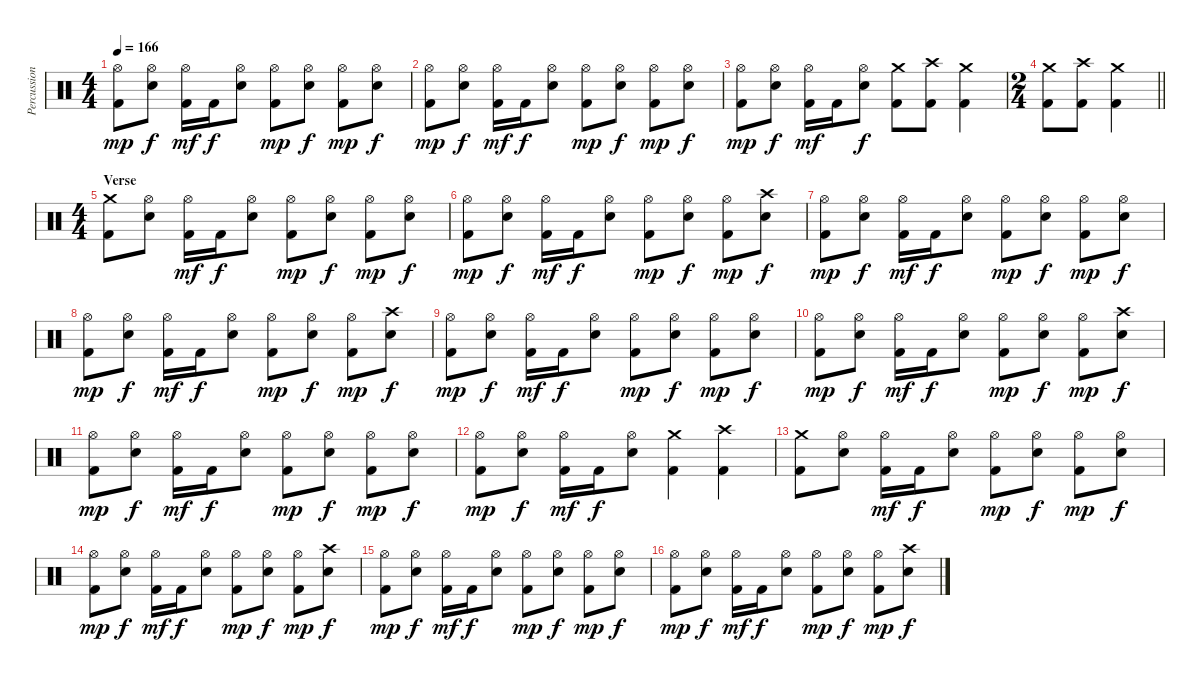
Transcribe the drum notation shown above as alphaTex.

\track ("Percussion" "Percussion") {instrument percussion}
\staff {score}
\articulation defaults
\ts (4 4)
\tempo 166
\clef neutral
\ks c
("Hi-Hat (open)" "Kick (hit) 2").8{dy mp} ("Hi-Hat (open)" "Electric Snare (hit)").8{dy f} ("Hi-Hat (open)" "Kick (hit) 2").16{dy mf} "Kick (hit) 2".16{dy f} ("Hi-Hat (open)" "Electric Snare (hit)").8 ("Hi-Hat (open)" "Kick (hit) 2").8{dy mp} ("Hi-Hat (open)" "Electric Snare (hit)").8{dy f} ("Hi-Hat (open)" "Kick (hit) 2").8{dy mp} ("Hi-Hat (open)" "Electric Snare (hit)").8{dy f} |
("Hi-Hat (open)" "Kick (hit) 2").8{dy mp} ("Hi-Hat (open)" "Electric Snare (hit)").8{dy f} ("Hi-Hat (open)" "Kick (hit) 2").16{dy mf} "Kick (hit) 2".16{dy f} ("Hi-Hat (open)" "Electric Snare (hit)").8 ("Hi-Hat (open)" "Kick (hit) 2").8{dy mp} ("Hi-Hat (open)" "Electric Snare (hit)").8{dy f} ("Hi-Hat (open)" "Kick (hit) 2").8{dy mp} ("Hi-Hat (open)" "Electric Snare (hit)").8{dy f} |
("Hi-Hat (open)" "Kick (hit) 2").8{dy mp} ("Hi-Hat (open)" "Electric Snare (hit)").8{dy f} ("Hi-Hat (open)" "Kick (hit) 2").16{dy mf} "Kick (hit) 2".16 ("Hi-Hat (open)" "Electric Snare (hit)").8{dy f} ("Crash medium (hit)" "Kick (hit) 2").8 ("Crash high (hit)" "Kick (hit) 2").8 ("Crash medium (hit)" "Kick (hit) 2").4 |
\ts (2 4)
\barLineRight lightlight
("Crash medium (hit)" "Kick (hit) 2").8 ("Crash high (hit)" "Kick (hit) 2").8 ("Crash medium (hit)" "Kick (hit) 2").4 |
\ts (4 4)
\section ("" "Verse")
("Crash medium (hit)" "Kick (hit) 2").8 ("Hi-Hat (open)" "Electric Snare (hit)").8 ("Hi-Hat (open)" "Kick (hit) 2").16{dy mf} "Kick (hit) 2".16{dy f} ("Hi-Hat (open)" "Electric Snare (hit)").8 ("Hi-Hat (open)" "Kick (hit) 2").8{dy mp} ("Hi-Hat (open)" "Electric Snare (hit)").8{dy f} ("Hi-Hat (open)" "Kick (hit) 2").8{dy mp} ("Hi-Hat (open)" "Electric Snare (hit)").8{dy f} |
("Hi-Hat (open)" "Kick (hit) 2").8{dy mp} ("Hi-Hat (open)" "Electric Snare (hit)").8{dy f} ("Hi-Hat (open)" "Kick (hit) 2").16{dy mf} "Kick (hit) 2".16{dy f} ("Hi-Hat (open)" "Electric Snare (hit)").8 ("Hi-Hat (open)" "Kick (hit) 2").8{dy mp} ("Hi-Hat (open)" "Electric Snare (hit)").8{dy f} ("Hi-Hat (open)" "Kick (hit) 2").8{dy mp} ("Crash high (hit)" "Electric Snare (hit)").8{dy f} |
("Hi-Hat (open)" "Kick (hit) 2").8{dy mp} ("Hi-Hat (open)" "Electric Snare (hit)").8{dy f} ("Hi-Hat (open)" "Kick (hit) 2").16{dy mf} "Kick (hit) 2".16{dy f} ("Hi-Hat (open)" "Electric Snare (hit)").8 ("Hi-Hat (open)" "Kick (hit) 2").8{dy mp} ("Hi-Hat (open)" "Electric Snare (hit)").8{dy f} ("Hi-Hat (open)" "Kick (hit) 2").8{dy mp} ("Hi-Hat (open)" "Electric Snare (hit)").8{dy f} |
("Hi-Hat (open)" "Kick (hit) 2").8{dy mp} ("Hi-Hat (open)" "Electric Snare (hit)").8{dy f} ("Hi-Hat (open)" "Kick (hit) 2").16{dy mf} "Kick (hit) 2".16{dy f} ("Hi-Hat (open)" "Electric Snare (hit)").8 ("Hi-Hat (open)" "Kick (hit) 2").8{dy mp} ("Hi-Hat (open)" "Electric Snare (hit)").8{dy f} ("Hi-Hat (open)" "Kick (hit) 2").8{dy mp} ("Crash high (hit)" "Electric Snare (hit)").8{dy f} |
("Hi-Hat (open)" "Kick (hit) 2").8{dy mp} ("Hi-Hat (open)" "Electric Snare (hit)").8{dy f} ("Hi-Hat (open)" "Kick (hit) 2").16{dy mf} "Kick (hit) 2".16{dy f} ("Hi-Hat (open)" "Electric Snare (hit)").8 ("Hi-Hat (open)" "Kick (hit) 2").8{dy mp} ("Hi-Hat (open)" "Electric Snare (hit)").8{dy f} ("Hi-Hat (open)" "Kick (hit) 2").8{dy mp} ("Hi-Hat (open)" "Electric Snare (hit)").8{dy f} |
("Hi-Hat (open)" "Kick (hit) 2").8{dy mp} ("Hi-Hat (open)" "Electric Snare (hit)").8{dy f} ("Hi-Hat (open)" "Kick (hit) 2").16{dy mf} "Kick (hit) 2".16{dy f} ("Hi-Hat (open)" "Electric Snare (hit)").8 ("Hi-Hat (open)" "Kick (hit) 2").8{dy mp} ("Hi-Hat (open)" "Electric Snare (hit)").8{dy f} ("Hi-Hat (open)" "Kick (hit) 2").8{dy mp} ("Crash high (hit)" "Electric Snare (hit)").8{dy f} |
("Hi-Hat (open)" "Kick (hit) 2").8{dy mp} ("Hi-Hat (open)" "Electric Snare (hit)").8{dy f} ("Hi-Hat (open)" "Kick (hit) 2").16{dy mf} "Kick (hit) 2".16{dy f} ("Hi-Hat (open)" "Electric Snare (hit)").8 ("Hi-Hat (open)" "Kick (hit) 2").8{dy mp} ("Hi-Hat (open)" "Electric Snare (hit)").8{dy f} ("Hi-Hat (open)" "Kick (hit) 2").8{dy mp} ("Hi-Hat (open)" "Electric Snare (hit)").8{dy f} |
("Hi-Hat (open)" "Kick (hit) 2").8{dy mp} ("Hi-Hat (open)" "Electric Snare (hit)").8{dy f} ("Hi-Hat (open)" "Kick (hit) 2").16{dy mf} "Kick (hit) 2".16{dy f} ("Hi-Hat (open)" "Electric Snare (hit)").8 ("Crash medium (hit)" "Kick (hit) 2").4 ("Crash high (hit)" "Kick (hit) 2").4 |
("Crash medium (hit)" "Kick (hit) 2").8 ("Hi-Hat (open)" "Electric Snare (hit)").8 ("Hi-Hat (open)" "Kick (hit) 2").16{dy mf} "Kick (hit) 2".16{dy f} ("Hi-Hat (open)" "Electric Snare (hit)").8 ("Hi-Hat (open)" "Kick (hit) 2").8{dy mp} ("Hi-Hat (open)" "Electric Snare (hit)").8{dy f} ("Hi-Hat (open)" "Kick (hit) 2").8{dy mp} ("Hi-Hat (open)" "Electric Snare (hit)").8{dy f} |
("Hi-Hat (open)" "Kick (hit) 2").8{dy mp} ("Hi-Hat (open)" "Electric Snare (hit)").8{dy f} ("Hi-Hat (open)" "Kick (hit) 2").16{dy mf} "Kick (hit) 2".16{dy f} ("Hi-Hat (open)" "Electric Snare (hit)").8 ("Hi-Hat (open)" "Kick (hit) 2").8{dy mp} ("Hi-Hat (open)" "Electric Snare (hit)").8{dy f} ("Hi-Hat (open)" "Kick (hit) 2").8{dy mp} ("Crash high (hit)" "Electric Snare (hit)").8{dy f} |
("Hi-Hat (open)" "Kick (hit) 2").8{dy mp} ("Hi-Hat (open)" "Electric Snare (hit)").8{dy f} ("Hi-Hat (open)" "Kick (hit) 2").16{dy mf} "Kick (hit) 2".16{dy f} ("Hi-Hat (open)" "Electric Snare (hit)").8 ("Hi-Hat (open)" "Kick (hit) 2").8{dy mp} ("Hi-Hat (open)" "Electric Snare (hit)").8{dy f} ("Hi-Hat (open)" "Kick (hit) 2").8{dy mp} ("Hi-Hat (open)" "Electric Snare (hit)").8{dy f} |
("Hi-Hat (open)" "Kick (hit) 2").8{dy mp} ("Hi-Hat (open)" "Electric Snare (hit)").8{dy f} ("Hi-Hat (open)" "Kick (hit) 2").16{dy mf} "Kick (hit) 2".16{dy f} ("Hi-Hat (open)" "Electric Snare (hit)").8 ("Hi-Hat (open)" "Kick (hit) 2").8{dy mp} ("Hi-Hat (open)" "Electric Snare (hit)").8{dy f} ("Hi-Hat (open)" "Kick (hit) 2").8{dy mp} ("Crash high (hit)" "Electric Snare (hit)").8{dy f}
